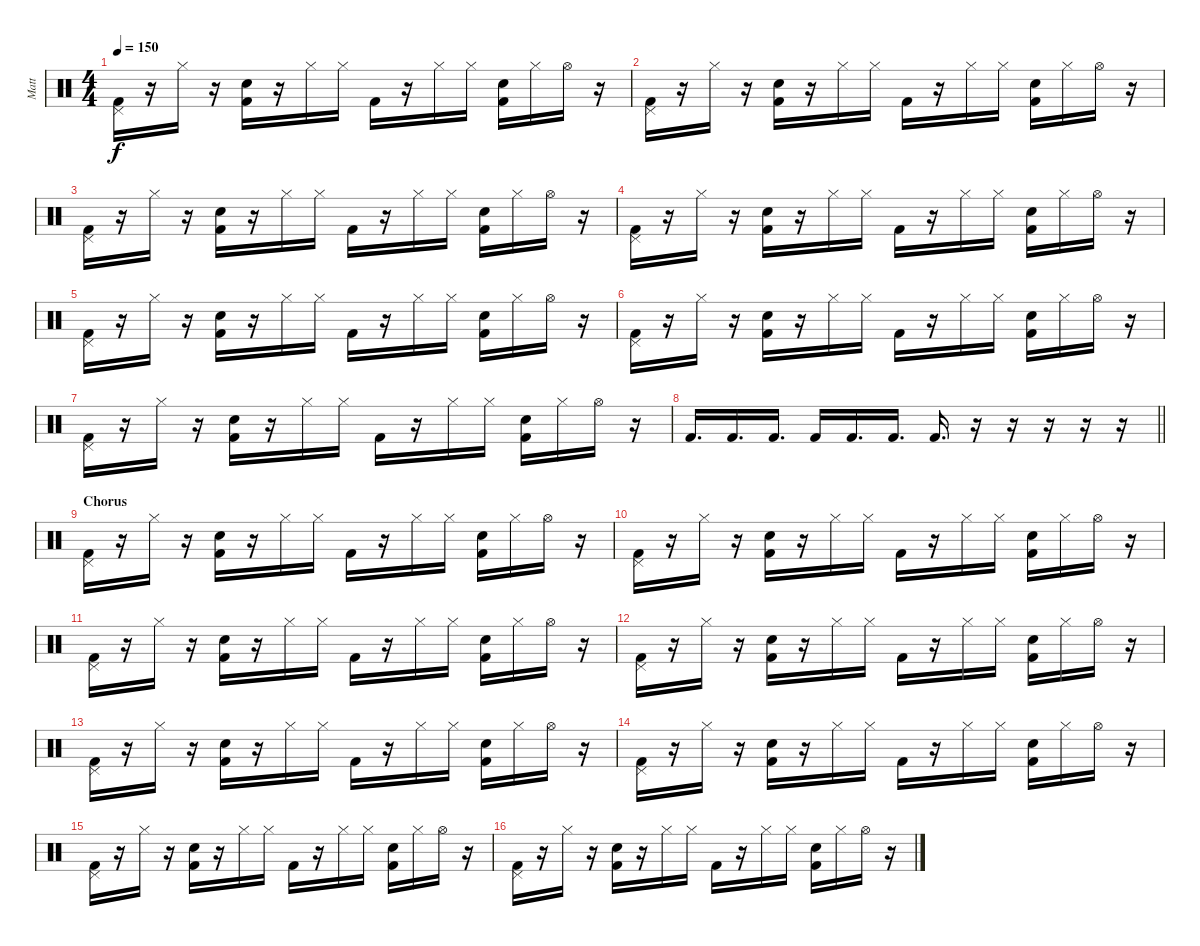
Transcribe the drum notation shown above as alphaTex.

\track ("Matt" "Matt") {instrument percussion}
\staff {score}
\articulation defaults
\ts (4 4)
\tempo 150
\clef neutral
\ks c
("Pedal Hi-Hat (hit)" "Kick (hit) 2").16{dy f} r.16 "Hi-Hat (closed)".16 r.16 ("Snare (hit) 2" "Kick (hit) 2").16 r.16 "Hi-Hat (closed)".16 "Hi-Hat (closed)".16 "Kick (hit) 2".16 r.16 "Hi-Hat (closed)".16 "Hi-Hat (closed)".16 ("Snare (hit) 2" "Kick (hit) 2").16 "Hi-Hat (closed)".16 "Hi-Hat (open)".16 r.16 |
("Pedal Hi-Hat (hit)" "Kick (hit) 2").16 r.16 "Hi-Hat (closed)".16 r.16 ("Snare (hit) 2" "Kick (hit) 2").16 r.16 "Hi-Hat (closed)".16 "Hi-Hat (closed)".16 "Kick (hit) 2".16 r.16 "Hi-Hat (closed)".16 "Hi-Hat (closed)".16 ("Snare (hit) 2" "Kick (hit) 2").16 "Hi-Hat (closed)".16 "Hi-Hat (open)".16 r.16 |
("Pedal Hi-Hat (hit)" "Kick (hit) 2").16 r.16 "Hi-Hat (closed)".16 r.16 ("Snare (hit) 2" "Kick (hit) 2").16 r.16 "Hi-Hat (closed)".16 "Hi-Hat (closed)".16 "Kick (hit) 2".16 r.16 "Hi-Hat (closed)".16 "Hi-Hat (closed)".16 ("Snare (hit) 2" "Kick (hit) 2").16 "Hi-Hat (closed)".16 "Hi-Hat (open)".16 r.16 |
("Pedal Hi-Hat (hit)" "Kick (hit) 2").16 r.16 "Hi-Hat (closed)".16 r.16 ("Snare (hit) 2" "Kick (hit) 2").16 r.16 "Hi-Hat (closed)".16 "Hi-Hat (closed)".16 "Kick (hit) 2".16 r.16 "Hi-Hat (closed)".16 "Hi-Hat (closed)".16 ("Snare (hit) 2" "Kick (hit) 2").16 "Hi-Hat (closed)".16 "Hi-Hat (open)".16 r.16 |
("Pedal Hi-Hat (hit)" "Kick (hit) 2").16 r.16 "Hi-Hat (closed)".16 r.16 ("Snare (hit) 2" "Kick (hit) 2").16 r.16 "Hi-Hat (closed)".16 "Hi-Hat (closed)".16 "Kick (hit) 2".16 r.16 "Hi-Hat (closed)".16 "Hi-Hat (closed)".16 ("Snare (hit) 2" "Kick (hit) 2").16 "Hi-Hat (closed)".16 "Hi-Hat (open)".16 r.16 |
("Pedal Hi-Hat (hit)" "Kick (hit) 2").16 r.16 "Hi-Hat (closed)".16 r.16 ("Snare (hit) 2" "Kick (hit) 2").16 r.16 "Hi-Hat (closed)".16 "Hi-Hat (closed)".16 "Kick (hit) 2".16 r.16 "Hi-Hat (closed)".16 "Hi-Hat (closed)".16 ("Snare (hit) 2" "Kick (hit) 2").16 "Hi-Hat (closed)".16 "Hi-Hat (open)".16 r.16 |
("Pedal Hi-Hat (hit)" "Kick (hit) 2").16 r.16 "Hi-Hat (closed)".16 r.16 ("Snare (hit) 2" "Kick (hit) 2").16 r.16 "Hi-Hat (closed)".16 "Hi-Hat (closed)".16 "Kick (hit) 2".16 r.16 "Hi-Hat (closed)".16 "Hi-Hat (closed)".16 ("Snare (hit) 2" "Kick (hit) 2").16 "Hi-Hat (closed)".16 "Hi-Hat (open)".16 r.16 |
\barLineRight lightlight "Kick (hit) 2".16{d} "Kick (hit) 2".16{d} "Kick (hit) 2".16{d} "Kick (hit) 2".16 "Kick (hit) 2".16{d} "Kick (hit) 2".16{d} "Kick (hit) 2".16{d}
r.16 r.16 r.16 r.16 r.16 |
\section ("" "Chorus")
("Pedal Hi-Hat (hit)" "Kick (hit) 2").16 r.16 "Hi-Hat (closed)".16 r.16 ("Snare (hit) 2" "Kick (hit) 2").16 r.16 "Hi-Hat (closed)".16 "Hi-Hat (closed)".16 "Kick (hit) 2".16 r.16 "Hi-Hat (closed)".16 "Hi-Hat (closed)".16 ("Snare (hit) 2" "Kick (hit) 2").16 "Hi-Hat (closed)".16 "Hi-Hat (open)".16 r.16 |
("Pedal Hi-Hat (hit)" "Kick (hit) 2").16 r.16 "Hi-Hat (closed)".16 r.16 ("Snare (hit) 2" "Kick (hit) 2").16 r.16 "Hi-Hat (closed)".16 "Hi-Hat (closed)".16 "Kick (hit) 2".16 r.16 "Hi-Hat (closed)".16 "Hi-Hat (closed)".16 ("Snare (hit) 2" "Kick (hit) 2").16 "Hi-Hat (closed)".16 "Hi-Hat (open)".16 r.16 |
("Pedal Hi-Hat (hit)" "Kick (hit) 2").16 r.16 "Hi-Hat (closed)".16 r.16 ("Snare (hit) 2" "Kick (hit) 2").16 r.16 "Hi-Hat (closed)".16 "Hi-Hat (closed)".16 "Kick (hit) 2".16 r.16 "Hi-Hat (closed)".16 "Hi-Hat (closed)".16 ("Snare (hit) 2" "Kick (hit) 2").16 "Hi-Hat (closed)".16 "Hi-Hat (open)".16 r.16 |
("Pedal Hi-Hat (hit)" "Kick (hit) 2").16 r.16 "Hi-Hat (closed)".16 r.16 ("Snare (hit) 2" "Kick (hit) 2").16 r.16 "Hi-Hat (closed)".16 "Hi-Hat (closed)".16 "Kick (hit) 2".16 r.16 "Hi-Hat (closed)".16 "Hi-Hat (closed)".16 ("Snare (hit) 2" "Kick (hit) 2").16 "Hi-Hat (closed)".16 "Hi-Hat (open)".16 r.16 |
("Pedal Hi-Hat (hit)" "Kick (hit) 2").16 r.16 "Hi-Hat (closed)".16 r.16 ("Snare (hit) 2" "Kick (hit) 2").16 r.16 "Hi-Hat (closed)".16 "Hi-Hat (closed)".16 "Kick (hit) 2".16 r.16 "Hi-Hat (closed)".16 "Hi-Hat (closed)".16 ("Snare (hit) 2" "Kick (hit) 2").16 "Hi-Hat (closed)".16 "Hi-Hat (open)".16 r.16 |
("Pedal Hi-Hat (hit)" "Kick (hit) 2").16 r.16 "Hi-Hat (closed)".16 r.16 ("Snare (hit) 2" "Kick (hit) 2").16 r.16 "Hi-Hat (closed)".16 "Hi-Hat (closed)".16 "Kick (hit) 2".16 r.16 "Hi-Hat (closed)".16 "Hi-Hat (closed)".16 ("Snare (hit) 2" "Kick (hit) 2").16 "Hi-Hat (closed)".16 "Hi-Hat (open)".16 r.16 |
("Pedal Hi-Hat (hit)" "Kick (hit) 2").16 r.16 "Hi-Hat (closed)".16 r.16 ("Snare (hit) 2" "Kick (hit) 2").16 r.16 "Hi-Hat (closed)".16 "Hi-Hat (closed)".16 "Kick (hit) 2".16 r.16 "Hi-Hat (closed)".16 "Hi-Hat (closed)".16 ("Snare (hit) 2" "Kick (hit) 2").16 "Hi-Hat (closed)".16 "Hi-Hat (open)".16 r.16 |
("Pedal Hi-Hat (hit)" "Kick (hit) 2").16 r.16 "Hi-Hat (closed)".16 r.16 ("Snare (hit) 2" "Kick (hit) 2").16 r.16 "Hi-Hat (closed)".16 "Hi-Hat (closed)".16 "Kick (hit) 2".16 r.16 "Hi-Hat (closed)".16 "Hi-Hat (closed)".16 ("Snare (hit) 2" "Kick (hit) 2").16 "Hi-Hat (closed)".16 "Hi-Hat (open)".16 r.16
